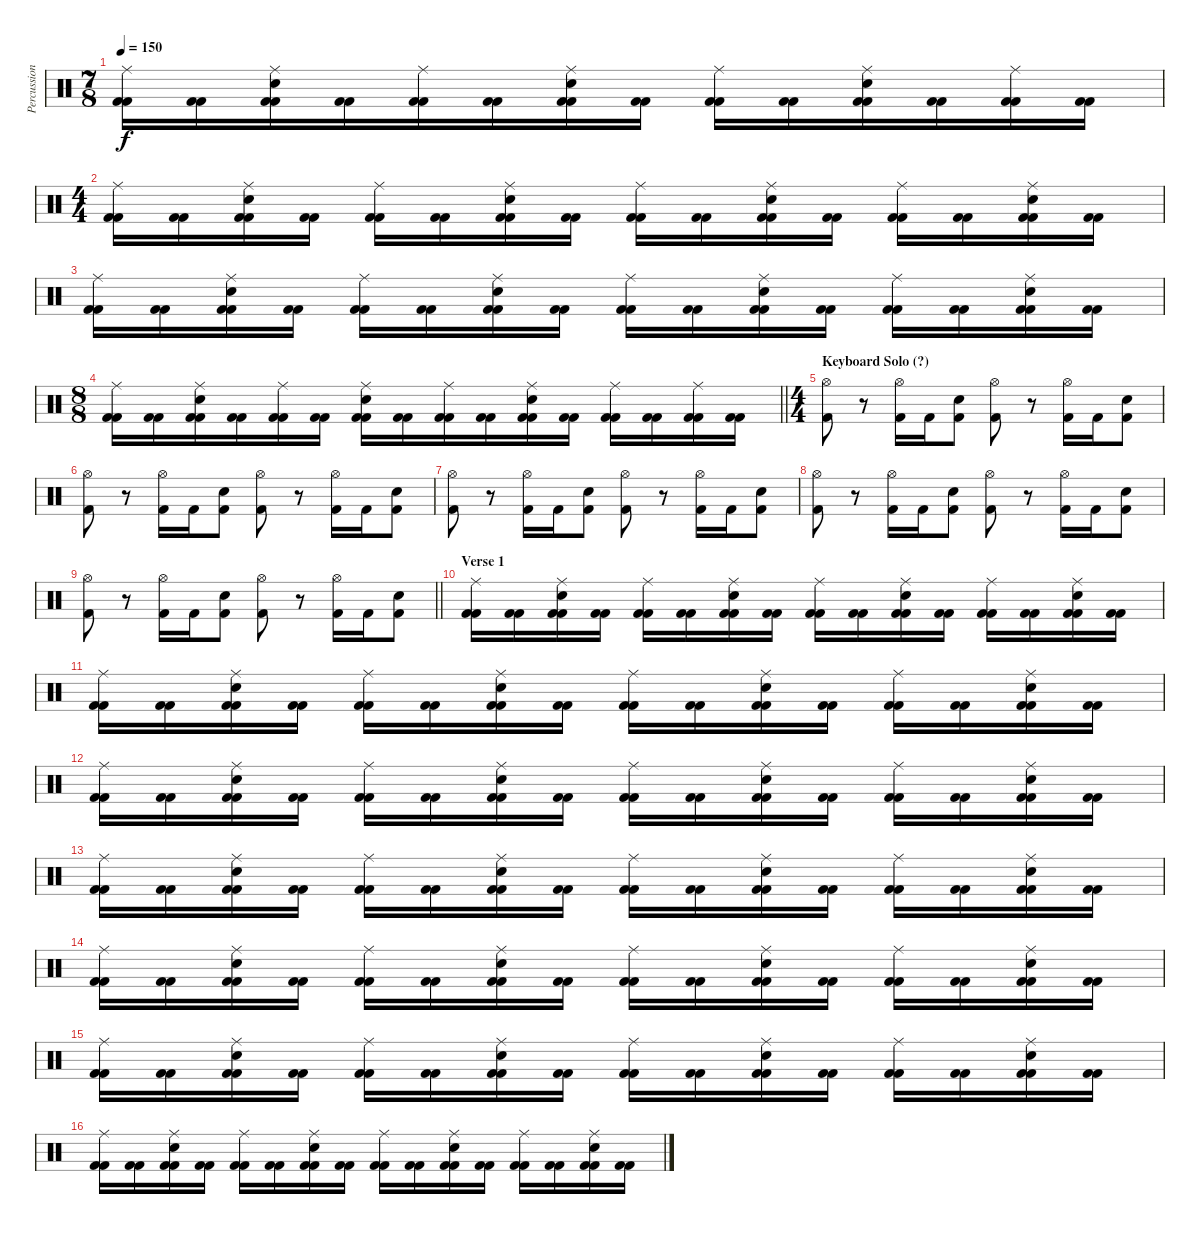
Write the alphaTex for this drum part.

\track ("Percussion" "Percussion") {instrument percussion}
\staff {score}
\articulation defaults
\ts (7 8)
\tempo 150
\clef neutral
\ks c
("Kick (hit) 2" "Kick (hit) 2" "Ride (middle)").16{dy f} ("Kick (hit) 2" "Kick (hit) 2").16 ("Kick (hit) 2" "Kick (hit) 2" "Electric Snare (hit)" "Ride (middle)").16 ("Kick (hit) 2" "Kick (hit) 2").16 ("Kick (hit) 2" "Kick (hit) 2" "Ride (middle)").16 ("Kick (hit) 2" "Kick (hit) 2").16 ("Kick (hit) 2" "Kick (hit) 2" "Electric Snare (hit)" "Ride (middle)").16 ("Kick (hit) 2" "Kick (hit) 2").16 ("Kick (hit) 2" "Kick (hit) 2" "Ride (middle)").16 ("Kick (hit) 2" "Kick (hit) 2").16 ("Kick (hit) 2" "Kick (hit) 2" "Electric Snare (hit)" "Ride (middle)").16 ("Kick (hit) 2" "Kick (hit) 2").16 ("Kick (hit) 2" "Kick (hit) 2" "Ride (middle)").16 ("Kick (hit) 2" "Kick (hit) 2").16 |
\ts (4 4)
("Kick (hit) 2" "Kick (hit) 2" "Ride (middle)").16 ("Kick (hit) 2" "Kick (hit) 2").16 ("Kick (hit) 2" "Kick (hit) 2" "Electric Snare (hit)" "Ride (middle)").16 ("Kick (hit) 2" "Kick (hit) 2").16 ("Kick (hit) 2" "Kick (hit) 2" "Ride (middle)").16 ("Kick (hit) 2" "Kick (hit) 2").16 ("Kick (hit) 2" "Kick (hit) 2" "Electric Snare (hit)" "Ride (middle)").16 ("Kick (hit) 2" "Kick (hit) 2").16 ("Kick (hit) 2" "Kick (hit) 2" "Ride (middle)").16 ("Kick (hit) 2" "Kick (hit) 2").16 ("Kick (hit) 2" "Kick (hit) 2" "Electric Snare (hit)" "Ride (middle)").16 ("Kick (hit) 2" "Kick (hit) 2").16 ("Kick (hit) 2" "Kick (hit) 2" "Ride (middle)").16 ("Kick (hit) 2" "Kick (hit) 2").16 ("Kick (hit) 2" "Kick (hit) 2" "Electric Snare (hit)" "Ride (middle)").16 ("Kick (hit) 2" "Kick (hit) 2").16 |
("Kick (hit) 2" "Kick (hit) 2" "Ride (middle)").16 ("Kick (hit) 2" "Kick (hit) 2").16 ("Kick (hit) 2" "Kick (hit) 2" "Electric Snare (hit)" "Ride (middle)").16 ("Kick (hit) 2" "Kick (hit) 2").16 ("Kick (hit) 2" "Kick (hit) 2" "Ride (middle)").16 ("Kick (hit) 2" "Kick (hit) 2").16 ("Kick (hit) 2" "Kick (hit) 2" "Electric Snare (hit)" "Ride (middle)").16 ("Kick (hit) 2" "Kick (hit) 2").16 ("Kick (hit) 2" "Kick (hit) 2" "Ride (middle)").16 ("Kick (hit) 2" "Kick (hit) 2").16 ("Kick (hit) 2" "Kick (hit) 2" "Electric Snare (hit)" "Ride (middle)").16 ("Kick (hit) 2" "Kick (hit) 2").16 ("Kick (hit) 2" "Kick (hit) 2" "Ride (middle)").16 ("Kick (hit) 2" "Kick (hit) 2").16 ("Kick (hit) 2" "Kick (hit) 2" "Electric Snare (hit)" "Ride (middle)").16 ("Kick (hit) 2" "Kick (hit) 2").16 |
\ts (8 8)
\barLineRight lightlight
("Kick (hit) 2" "Kick (hit) 2" "Ride (middle)").16 ("Kick (hit) 2" "Kick (hit) 2").16 ("Kick (hit) 2" "Kick (hit) 2" "Electric Snare (hit)" "Ride (middle)").16 ("Kick (hit) 2" "Kick (hit) 2").16 ("Kick (hit) 2" "Kick (hit) 2" "Ride (middle)").16 ("Kick (hit) 2" "Kick (hit) 2").16 ("Kick (hit) 2" "Kick (hit) 2" "Electric Snare (hit)" "Ride (middle)").16 ("Kick (hit) 2" "Kick (hit) 2").16 ("Kick (hit) 2" "Kick (hit) 2" "Ride (middle)").16 ("Kick (hit) 2" "Kick (hit) 2").16 ("Kick (hit) 2" "Kick (hit) 2" "Electric Snare (hit)" "Ride (middle)").16 ("Kick (hit) 2" "Kick (hit) 2").16 ("Kick (hit) 2" "Kick (hit) 2" "Ride (middle)").16 ("Kick (hit) 2" "Kick (hit) 2").16 ("Kick (hit) 2" "Kick (hit) 2" "Ride (middle)").16 ("Kick (hit) 2" "Kick (hit) 2").16 |
\ts (4 4)
\section ("" "Keyboard Solo (?)")
("Kick (hit) 2" "Hi-Hat (open)").8 r.8 ("Kick (hit) 2" "Hi-Hat (open)").16 "Kick (hit) 2".16 ("Kick (hit) 2" "Snare (hit) 2").8 ("Kick (hit) 2" "Hi-Hat (open)").8 r.8 ("Kick (hit) 2" "Hi-Hat (open)").16 "Kick (hit) 2".16 ("Kick (hit) 2" "Snare (hit) 2").8 |
("Kick (hit) 2" "Hi-Hat (open)").8 r.8 ("Kick (hit) 2" "Hi-Hat (open)").16 "Kick (hit) 2".16 ("Kick (hit) 2" "Snare (hit) 2").8 ("Kick (hit) 2" "Hi-Hat (open)").8 r.8 ("Kick (hit) 2" "Hi-Hat (open)").16 "Kick (hit) 2".16 ("Kick (hit) 2" "Snare (hit) 2").8 |
("Kick (hit) 2" "Hi-Hat (open)").8 r.8 ("Kick (hit) 2" "Hi-Hat (open)").16 "Kick (hit) 2".16 ("Kick (hit) 2" "Snare (hit) 2").8 ("Kick (hit) 2" "Hi-Hat (open)").8 r.8 ("Kick (hit) 2" "Hi-Hat (open)").16 "Kick (hit) 2".16 ("Kick (hit) 2" "Snare (hit) 2").8 |
("Kick (hit) 2" "Hi-Hat (open)").8 r.8 ("Kick (hit) 2" "Hi-Hat (open)").16 "Kick (hit) 2".16 ("Kick (hit) 2" "Snare (hit) 2").8 ("Kick (hit) 2" "Hi-Hat (open)").8 r.8 ("Kick (hit) 2" "Hi-Hat (open)").16 "Kick (hit) 2".16 ("Kick (hit) 2" "Snare (hit) 2").8 |
\barLineRight lightlight
("Kick (hit) 2" "Hi-Hat (open)").8 r.8 ("Kick (hit) 2" "Hi-Hat (open)").16 "Kick (hit) 2".16 ("Kick (hit) 2" "Snare (hit) 2").8 ("Kick (hit) 2" "Hi-Hat (open)").8 r.8 ("Kick (hit) 2" "Hi-Hat (open)").16 "Kick (hit) 2".16 ("Kick (hit) 2" "Snare (hit) 2").8 |
\section ("" "Verse 1")
("Kick (hit) 2" "Kick (hit) 2" "Ride (middle)").16 ("Kick (hit) 2" "Kick (hit) 2").16 ("Kick (hit) 2" "Kick (hit) 2" "Electric Snare (hit)" "Ride (middle)").16 ("Kick (hit) 2" "Kick (hit) 2").16 ("Kick (hit) 2" "Kick (hit) 2" "Ride (middle)").16 ("Kick (hit) 2" "Kick (hit) 2").16 ("Kick (hit) 2" "Kick (hit) 2" "Electric Snare (hit)" "Ride (middle)").16 ("Kick (hit) 2" "Kick (hit) 2").16 ("Kick (hit) 2" "Kick (hit) 2" "Ride (middle)").16 ("Kick (hit) 2" "Kick (hit) 2").16 ("Kick (hit) 2" "Kick (hit) 2" "Electric Snare (hit)" "Ride (middle)").16 ("Kick (hit) 2" "Kick (hit) 2").16 ("Kick (hit) 2" "Kick (hit) 2" "Ride (middle)").16 ("Kick (hit) 2" "Kick (hit) 2").16 ("Kick (hit) 2" "Kick (hit) 2" "Electric Snare (hit)" "Ride (middle)").16 ("Kick (hit) 2" "Kick (hit) 2").16 |
("Kick (hit) 2" "Kick (hit) 2" "Ride (middle)").16 ("Kick (hit) 2" "Kick (hit) 2").16 ("Kick (hit) 2" "Kick (hit) 2" "Electric Snare (hit)" "Ride (middle)").16 ("Kick (hit) 2" "Kick (hit) 2").16 ("Kick (hit) 2" "Kick (hit) 2" "Ride (middle)").16 ("Kick (hit) 2" "Kick (hit) 2").16 ("Kick (hit) 2" "Kick (hit) 2" "Electric Snare (hit)" "Ride (middle)").16 ("Kick (hit) 2" "Kick (hit) 2").16 ("Kick (hit) 2" "Kick (hit) 2" "Ride (middle)").16 ("Kick (hit) 2" "Kick (hit) 2").16 ("Kick (hit) 2" "Kick (hit) 2" "Electric Snare (hit)" "Ride (middle)").16 ("Kick (hit) 2" "Kick (hit) 2").16 ("Kick (hit) 2" "Kick (hit) 2" "Ride (middle)").16 ("Kick (hit) 2" "Kick (hit) 2").16 ("Kick (hit) 2" "Kick (hit) 2" "Electric Snare (hit)" "Ride (middle)").16 ("Kick (hit) 2" "Kick (hit) 2").16 |
("Kick (hit) 2" "Kick (hit) 2" "Ride (middle)").16 ("Kick (hit) 2" "Kick (hit) 2").16 ("Kick (hit) 2" "Kick (hit) 2" "Electric Snare (hit)" "Ride (middle)").16 ("Kick (hit) 2" "Kick (hit) 2").16 ("Kick (hit) 2" "Kick (hit) 2" "Ride (middle)").16 ("Kick (hit) 2" "Kick (hit) 2").16 ("Kick (hit) 2" "Kick (hit) 2" "Electric Snare (hit)" "Ride (middle)").16 ("Kick (hit) 2" "Kick (hit) 2").16 ("Kick (hit) 2" "Kick (hit) 2" "Ride (middle)").16 ("Kick (hit) 2" "Kick (hit) 2").16 ("Kick (hit) 2" "Kick (hit) 2" "Electric Snare (hit)" "Ride (middle)").16 ("Kick (hit) 2" "Kick (hit) 2").16 ("Kick (hit) 2" "Kick (hit) 2" "Ride (middle)").16 ("Kick (hit) 2" "Kick (hit) 2").16 ("Kick (hit) 2" "Kick (hit) 2" "Electric Snare (hit)" "Ride (middle)").16 ("Kick (hit) 2" "Kick (hit) 2").16 |
("Kick (hit) 2" "Kick (hit) 2" "Ride (middle)").16 ("Kick (hit) 2" "Kick (hit) 2").16 ("Kick (hit) 2" "Kick (hit) 2" "Electric Snare (hit)" "Ride (middle)").16 ("Kick (hit) 2" "Kick (hit) 2").16 ("Kick (hit) 2" "Kick (hit) 2" "Ride (middle)").16 ("Kick (hit) 2" "Kick (hit) 2").16 ("Kick (hit) 2" "Kick (hit) 2" "Electric Snare (hit)" "Ride (middle)").16 ("Kick (hit) 2" "Kick (hit) 2").16 ("Kick (hit) 2" "Kick (hit) 2" "Ride (middle)").16 ("Kick (hit) 2" "Kick (hit) 2").16 ("Kick (hit) 2" "Kick (hit) 2" "Electric Snare (hit)" "Ride (middle)").16 ("Kick (hit) 2" "Kick (hit) 2").16 ("Kick (hit) 2" "Kick (hit) 2" "Ride (middle)").16 ("Kick (hit) 2" "Kick (hit) 2").16 ("Kick (hit) 2" "Kick (hit) 2" "Electric Snare (hit)" "Ride (middle)").16 ("Kick (hit) 2" "Kick (hit) 2").16 |
("Kick (hit) 2" "Kick (hit) 2" "Ride (middle)").16 ("Kick (hit) 2" "Kick (hit) 2").16 ("Kick (hit) 2" "Kick (hit) 2" "Electric Snare (hit)" "Ride (middle)").16 ("Kick (hit) 2" "Kick (hit) 2").16 ("Kick (hit) 2" "Kick (hit) 2" "Ride (middle)").16 ("Kick (hit) 2" "Kick (hit) 2").16 ("Kick (hit) 2" "Kick (hit) 2" "Electric Snare (hit)" "Ride (middle)").16 ("Kick (hit) 2" "Kick (hit) 2").16 ("Kick (hit) 2" "Kick (hit) 2" "Ride (middle)").16 ("Kick (hit) 2" "Kick (hit) 2").16 ("Kick (hit) 2" "Kick (hit) 2" "Electric Snare (hit)" "Ride (middle)").16 ("Kick (hit) 2" "Kick (hit) 2").16 ("Kick (hit) 2" "Kick (hit) 2" "Ride (middle)").16 ("Kick (hit) 2" "Kick (hit) 2").16 ("Kick (hit) 2" "Kick (hit) 2" "Electric Snare (hit)" "Ride (middle)").16 ("Kick (hit) 2" "Kick (hit) 2").16 |
("Kick (hit) 2" "Kick (hit) 2" "Ride (middle)").16 ("Kick (hit) 2" "Kick (hit) 2").16 ("Kick (hit) 2" "Kick (hit) 2" "Electric Snare (hit)" "Ride (middle)").16 ("Kick (hit) 2" "Kick (hit) 2").16 ("Kick (hit) 2" "Kick (hit) 2" "Ride (middle)").16 ("Kick (hit) 2" "Kick (hit) 2").16 ("Kick (hit) 2" "Kick (hit) 2" "Electric Snare (hit)" "Ride (middle)").16 ("Kick (hit) 2" "Kick (hit) 2").16 ("Kick (hit) 2" "Kick (hit) 2" "Ride (middle)").16 ("Kick (hit) 2" "Kick (hit) 2").16 ("Kick (hit) 2" "Kick (hit) 2" "Electric Snare (hit)" "Ride (middle)").16 ("Kick (hit) 2" "Kick (hit) 2").16 ("Kick (hit) 2" "Kick (hit) 2" "Ride (middle)").16 ("Kick (hit) 2" "Kick (hit) 2").16 ("Kick (hit) 2" "Kick (hit) 2" "Electric Snare (hit)" "Ride (middle)").16 ("Kick (hit) 2" "Kick (hit) 2").16 |
("Kick (hit) 2" "Kick (hit) 2" "Ride (middle)").16 ("Kick (hit) 2" "Kick (hit) 2").16 ("Kick (hit) 2" "Kick (hit) 2" "Electric Snare (hit)" "Ride (middle)").16 ("Kick (hit) 2" "Kick (hit) 2").16 ("Kick (hit) 2" "Kick (hit) 2" "Ride (middle)").16 ("Kick (hit) 2" "Kick (hit) 2").16 ("Kick (hit) 2" "Kick (hit) 2" "Electric Snare (hit)" "Ride (middle)").16 ("Kick (hit) 2" "Kick (hit) 2").16 ("Kick (hit) 2" "Kick (hit) 2" "Ride (middle)").16 ("Kick (hit) 2" "Kick (hit) 2").16 ("Kick (hit) 2" "Kick (hit) 2" "Electric Snare (hit)" "Ride (middle)").16 ("Kick (hit) 2" "Kick (hit) 2").16 ("Kick (hit) 2" "Kick (hit) 2" "Ride (middle)").16 ("Kick (hit) 2" "Kick (hit) 2").16 ("Kick (hit) 2" "Kick (hit) 2" "Electric Snare (hit)" "Ride (middle)").16 ("Kick (hit) 2" "Kick (hit) 2").16
